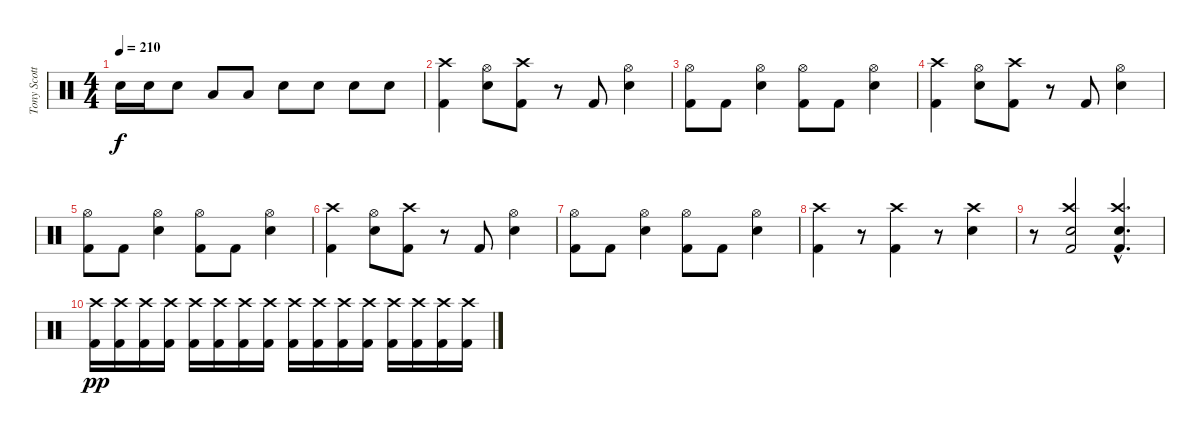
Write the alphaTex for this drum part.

\track ("Tony Scotto" "Tony Scott") {instrument percussion}
\staff {score}
\articulation defaults
\ts (4 4)
\tempo 210
\clef neutral
\ks c "Snare (hit) 2".16{dy f} "Snare (hit) 2".16 "Snare (hit) 2".8 "Low Tom (hit)".8 "Low Floor Tom (hit)".8 "Snare (hit) 2".8 "Snare (hit) 2".8 "Snare (hit) 2".8 "Snare (hit) 2".8
|
("Crash high (hit)" "Kick (hit) 2").4 ("Hi-Hat (open)" "Snare (hit) 2").8 ("Crash high (hit)" "Kick (hit) 2").8 r.8 "Kick (hit) 2".8 ("Hi-Hat (open)" "Snare (hit) 2").4 |
("Hi-Hat (open)" "Kick (hit) 2").8 "Kick (hit) 2".8 ("Hi-Hat (open)" "Snare (hit) 2").4 ("Hi-Hat (open)" "Kick (hit) 2").8 "Kick (hit) 2".8 ("Hi-Hat (open)" "Snare (hit) 2").4 |
("Crash high (hit)" "Kick (hit) 2").4 ("Hi-Hat (open)" "Snare (hit) 2").8 ("Crash high (hit)" "Kick (hit) 2").8 r.8 "Kick (hit) 2".8 ("Hi-Hat (open)" "Snare (hit) 2").4 |
("Hi-Hat (open)" "Kick (hit) 2").8 "Kick (hit) 2".8 ("Hi-Hat (open)" "Snare (hit) 2").4 ("Hi-Hat (open)" "Kick (hit) 2").8 "Kick (hit) 2".8 ("Hi-Hat (open)" "Snare (hit) 2").4 |
("Crash high (hit)" "Kick (hit) 2").4 ("Hi-Hat (open)" "Snare (hit) 2").8 ("Crash high (hit)" "Kick (hit) 2").8 r.8 "Kick (hit) 2".8 ("Hi-Hat (open)" "Snare (hit) 2").4 |
("Hi-Hat (open)" "Kick (hit) 2").8 "Kick (hit) 2".8 ("Hi-Hat (open)" "Snare (hit) 2").4 ("Hi-Hat (open)" "Kick (hit) 2").8 "Kick (hit) 2".8 ("Hi-Hat (open)" "Snare (hit) 2").4 |
("Crash high (hit)" "Kick (hit) 2").4 r.8 ("Crash high (hit)" "Kick (hit) 2").4 r.8 ("Crash high (hit)" "Snare (hit) 2").4 |
r.8 ("Crash high (hit)" "Snare (hit) 2" "Kick (hit) 2").2 ("Crash high (hit)"{hac} "Snare (hit) 2"{hac} "Kick (hit) 2"{hac}).4{d} |
("Crash high (hit)" "Kick (hit) 2").16{dy pp} ("Crash high (hit)" "Kick (hit) 2").16 ("Crash high (hit)" "Kick (hit) 2").16 ("Crash high (hit)" "Kick (hit) 2").16 ("Crash high (hit)" "Kick (hit) 2").16 ("Crash high (hit)" "Kick (hit) 2").16 ("Crash high (hit)" "Kick (hit) 2").16 ("Crash high (hit)" "Kick (hit) 2").16 ("Crash high (hit)" "Kick (hit) 2").16 ("Crash high (hit)" "Kick (hit) 2").16 ("Crash high (hit)" "Kick (hit) 2").16 ("Crash high (hit)" "Kick (hit) 2").16 ("Crash high (hit)" "Kick (hit) 2").16 ("Crash high (hit)" "Kick (hit) 2").16 ("Crash high (hit)" "Kick (hit) 2").16 ("Crash high (hit)" "Kick (hit) 2").16
